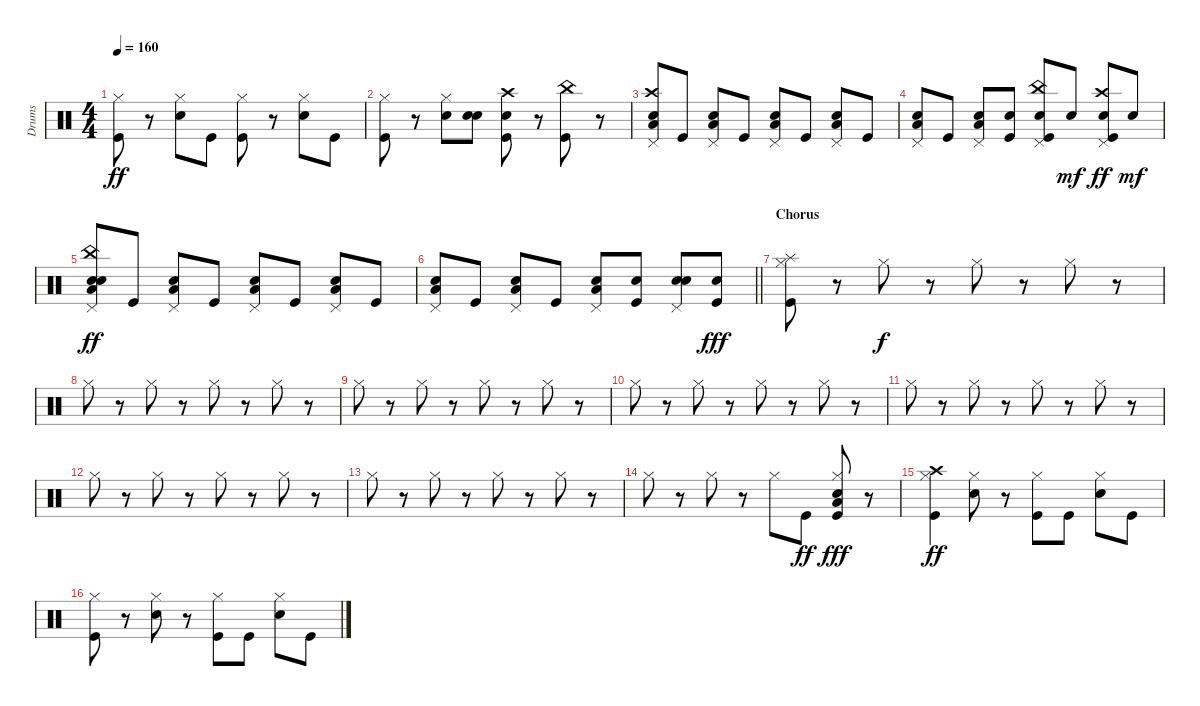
\track ("Drums" "Drums") {instrument percussion}
\staff {score}
\articulation defaults
\ts (4 4)
\tempo 160
\clef neutral
\ks c
("Kick (hit)" "Hi-Hat (closed)").8{dy ff} r.8 ("Hi-Hat (closed)" "Snare (hit) 2").8 "Kick (hit)".8 ("Hi-Hat (closed)" "Kick (hit)").8 r.8 ("Hi-Hat (closed)" "Snare (hit) 2").8 "Kick (hit)".8 |
("Hi-Hat (closed)" "Kick (hit)").8 r.8 ("Hi-Hat (closed)" "Snare (hit) 2").8 ("Snare (hit) 2" "Snare (hit) 2").8 ("Snare (hit) 2" "Crash high (hit)" "Kick (hit)").8 r.8 ("China (hit)" "Kick (hit)").8 r.8 |
("Crash high (hit)" "Pedal Hi-Hat (hit)" "Snare (hit) 2" "Low Floor Tom (hit)").8 "Kick (hit)".8 ("Snare (hit) 2" "Pedal Hi-Hat (hit)" "Low Floor Tom (hit)").8 "Kick (hit)".8 ("Snare (hit) 2" "Pedal Hi-Hat (hit)" "Low Floor Tom (hit)").8 "Kick (hit)".8 ("Snare (hit) 2" "Pedal Hi-Hat (hit)" "Low Floor Tom (hit)").8 "Kick (hit)".8 |
("Snare (hit) 2" "Pedal Hi-Hat (hit)" "Low Floor Tom (hit)").8 "Kick (hit)".8 ("Snare (hit) 2" "Pedal Hi-Hat (hit)" "Low Floor Tom (hit)").8 ("Snare (hit) 2" "Kick (hit)").8 ("Snare (hit) 2" "Kick (hit)" "China (hit)" "Pedal Hi-Hat (hit)").8 "Snare (hit) 2".8{dy mf} ("Snare (hit) 2" "Crash high (hit)" "Pedal Hi-Hat (hit)" "Kick (hit)").8{dy ff} "Snare (hit) 2".8{dy mf} |
("Snare (hit) 2" "Snare (hit) 2" "China (hit)" "Pedal Hi-Hat (hit)" "Low Floor Tom (hit)").8{dy ff} "Kick (hit)".8 ("Snare (hit) 2" "Pedal Hi-Hat (hit)" "Low Floor Tom (hit)").8 "Kick (hit)".8 ("Snare (hit) 2" "Pedal Hi-Hat (hit)" "Low Floor Tom (hit)").8 "Kick (hit)".8 ("Snare (hit) 2" "Pedal Hi-Hat (hit)" "Low Floor Tom (hit)").8 "Kick (hit)".8 |
\barLineRight lightlight
("Snare (hit) 2" "Pedal Hi-Hat (hit)" "Low Floor Tom (hit)").8 "Kick (hit)".8 ("Snare (hit) 2" "Pedal Hi-Hat (hit)" "Low Floor Tom (hit)").8 "Kick (hit)".8 ("Snare (hit) 2" "Pedal Hi-Hat (hit)" "Low Floor Tom (hit)").8 ("Snare (hit) 2" "Kick (hit)").8 ("Snare (hit) 2" "Pedal Hi-Hat (hit)" "Snare (hit) 2").8 ("Snare (hit) 2" "Kick (hit)").8{dy fff} |
\section ("" "Chorus")
("Kick (hit)" "Splash (hit)" "Hi-Hat (closed)").8 r.8 "Hi-Hat (closed)".8{dy f} r.8 "Hi-Hat (closed)".8 r.8 "Hi-Hat (closed)".8 r.8 |
"Hi-Hat (closed)".8 r.8 "Hi-Hat (closed)".8 r.8 "Hi-Hat (closed)".8 r.8 "Hi-Hat (closed)".8 r.8 |
"Hi-Hat (closed)".8 r.8 "Hi-Hat (closed)".8 r.8 "Hi-Hat (closed)".8 r.8 "Hi-Hat (closed)".8 r.8 |
"Hi-Hat (closed)".8 r.8 "Hi-Hat (closed)".8 r.8 "Hi-Hat (closed)".8 r.8 "Hi-Hat (closed)".8 r.8 |
"Hi-Hat (closed)".8 r.8 "Hi-Hat (closed)".8 r.8 "Hi-Hat (closed)".8 r.8 "Hi-Hat (closed)".8 r.8 |
"Hi-Hat (closed)".8 r.8 "Hi-Hat (closed)".8 r.8 "Hi-Hat (closed)".8 r.8 "Hi-Hat (closed)".8 r.8 |
"Hi-Hat (closed)".8 r.8 "Hi-Hat (closed)".8 r.8 "Hi-Hat (closed)".8 r.8 "Hi-Hat (closed)".8 r.8 |
"Hi-Hat (closed)".8 r.8 "Hi-Hat (closed)".8 r.8 "Hi-Hat (closed)".8 "Kick (hit)".8{dy ff} ("Kick (hit)" "Snare (hit) 2" "Low Floor Tom (hit)" "Hi-Hat (closed)").8{dy fff} r.8 |
("Crash high (hit)" "Hi-Hat (closed)" "Kick (hit)").4{dy ff} ("Hi-Hat (closed)" "Snare (hit) 2").8 r.8 ("Hi-Hat (closed)" "Kick (hit)").8 "Kick (hit)".8 ("Hi-Hat (closed)" "Snare (hit) 2").8 "Kick (hit)".8 |
("Hi-Hat (closed)" "Kick (hit)").8 r.8 ("Hi-Hat (closed)" "Snare (hit) 2").8 r.8 ("Hi-Hat (closed)" "Kick (hit)").8 "Kick (hit)".8 ("Hi-Hat (closed)" "Snare (hit) 2").8 "Kick (hit)".8
